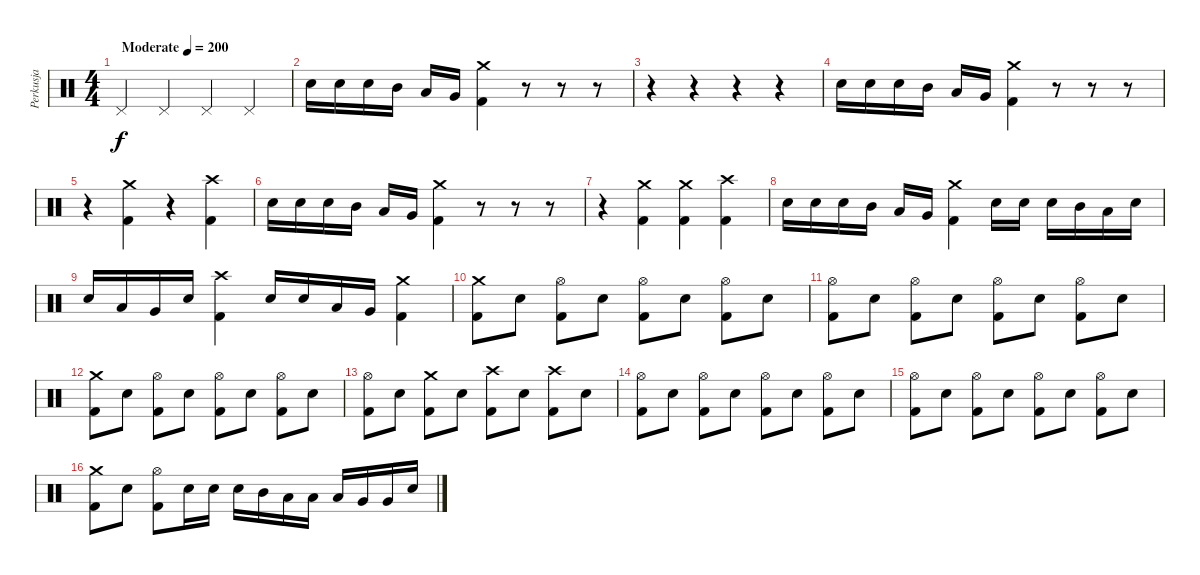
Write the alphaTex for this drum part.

\track ("Perkusja" "Perkusja") {instrument percussion}
\staff {score}
\articulation defaults
\ts (4 4)
\tempo (200 "Moderate")
\clef neutral
\ks c "Pedal Hi-Hat (hit)".4{dy f} "Pedal Hi-Hat (hit)".4 "Pedal Hi-Hat (hit)".4 "Pedal Hi-Hat (hit)".4
|
"Snare (hit) 2".16 "Snare (hit) 2".16 "Snare (hit) 2".16 "Mid Tom (hit)".16 "Low Tom (hit)".16 "Very Low Tom (hit)".16 ("Crash medium (hit)" "Kick (hit) 2").4 r.8 r.8 r.8 |
r.4 r.4 r.4 r.4 |
"Snare (hit) 2".16 "Snare (hit) 2".16 "Snare (hit) 2".16 "Mid Tom (hit)".16 "Low Tom (hit)".16 "Very Low Tom (hit)".16 ("Crash medium (hit)" "Kick (hit) 2").4 r.8 r.8 r.8 |
r.4 ("Crash medium (hit)" "Kick (hit) 2").4 r.4 ("Crash high (hit)" "Kick (hit) 2").4 |
"Snare (hit) 2".16 "Snare (hit) 2".16 "Snare (hit) 2".16 "Mid Tom (hit)".16 "Low Tom (hit)".16 "Very Low Tom (hit)".16 ("Crash medium (hit)" "Kick (hit) 2").4 r.8 r.8 r.8 |
r.4 ("Crash medium (hit)" "Kick (hit) 2").4 ("Crash medium (hit)" "Kick (hit) 2").4 ("Crash high (hit)" "Kick (hit) 2").4 |
"Snare (hit) 2".16 "Snare (hit) 2".16 "Snare (hit) 2".16 "Mid Tom (hit)".16 "Low Tom (hit)".16 "Very Low Tom (hit)".16 ("Crash medium (hit)" "Kick (hit) 2").4 "Snare (hit) 2".16 "Snare (hit) 2".16 "Snare (hit) 2".16 "Mid Tom (hit)".16 "Low Tom (hit)".16 "Snare (hit) 2".16 |
"Snare (hit) 2".16 "Low Tom (hit)".16 "Very Low Tom (hit)".16 "Snare (hit) 2".16 ("Crash high (hit)" "Kick (hit) 2").4 "Snare (hit) 2".16 "Snare (hit) 2".16 "Low Tom (hit)".16 "Very Low Tom (hit)".16 ("Crash medium (hit)" "Kick (hit) 2").4 |
("Crash medium (hit)" "Kick (hit) 2").8 "Snare (hit) 2".8 ("Hi-Hat (open)" "Kick (hit) 2").8 "Snare (hit) 2".8 ("Hi-Hat (open)" "Kick (hit) 2").8 "Snare (hit) 2".8 ("Hi-Hat (open)" "Kick (hit) 2").8 "Snare (hit) 2".8 |
("Hi-Hat (open)" "Kick (hit) 2").8 "Snare (hit) 2".8 ("Hi-Hat (open)" "Kick (hit) 2").8 "Snare (hit) 2".8 ("Hi-Hat (open)" "Kick (hit) 2").8 "Snare (hit) 2".8 ("Hi-Hat (open)" "Kick (hit) 2").8 "Snare (hit) 2".8 |
("Crash medium (hit)" "Kick (hit) 2").8 "Snare (hit) 2".8 ("Hi-Hat (open)" "Kick (hit) 2").8 "Snare (hit) 2".8 ("Hi-Hat (open)" "Kick (hit) 2").8 "Snare (hit) 2".8 ("Hi-Hat (open)" "Kick (hit) 2").8 "Snare (hit) 2".8 |
("Hi-Hat (open)" "Kick (hit) 2").8 "Snare (hit) 2".8 ("Crash medium (hit)" "Kick (hit) 2").8 "Snare (hit) 2".8 ("Crash high (hit)" "Kick (hit) 2").8 "Snare (hit) 2".8 ("Crash high (hit)" "Kick (hit) 2").8 "Snare (hit) 2".8 |
("Hi-Hat (open)" "Kick (hit) 2").8 "Snare (hit) 2".8 ("Hi-Hat (open)" "Kick (hit) 2").8 "Snare (hit) 2".8 ("Hi-Hat (open)" "Kick (hit) 2").8 "Snare (hit) 2".8 ("Hi-Hat (open)" "Kick (hit) 2").8 "Snare (hit) 2".8 |
("Hi-Hat (open)" "Kick (hit) 2").8 "Snare (hit) 2".8 ("Hi-Hat (open)" "Kick (hit) 2").8 "Snare (hit) 2".8 ("Hi-Hat (open)" "Kick (hit) 2").8 "Snare (hit) 2".8 ("Hi-Hat (open)" "Kick (hit) 2").8 "Snare (hit) 2".8 |
("Crash medium (hit)" "Kick (hit) 2").8 "Snare (hit) 2".8 ("Hi-Hat (open)" "Kick (hit) 2").8 "Snare (hit) 2".16 "Snare (hit) 2".16 "Snare (hit) 2".16 "Mid Tom (hit)".16 "Low Tom (hit)".16 "Low Tom (hit)".16 "Low Tom (hit)".16 "Very Low Tom (hit)".16 "Very Low Tom (hit)".16 "Snare (hit) 2".16
